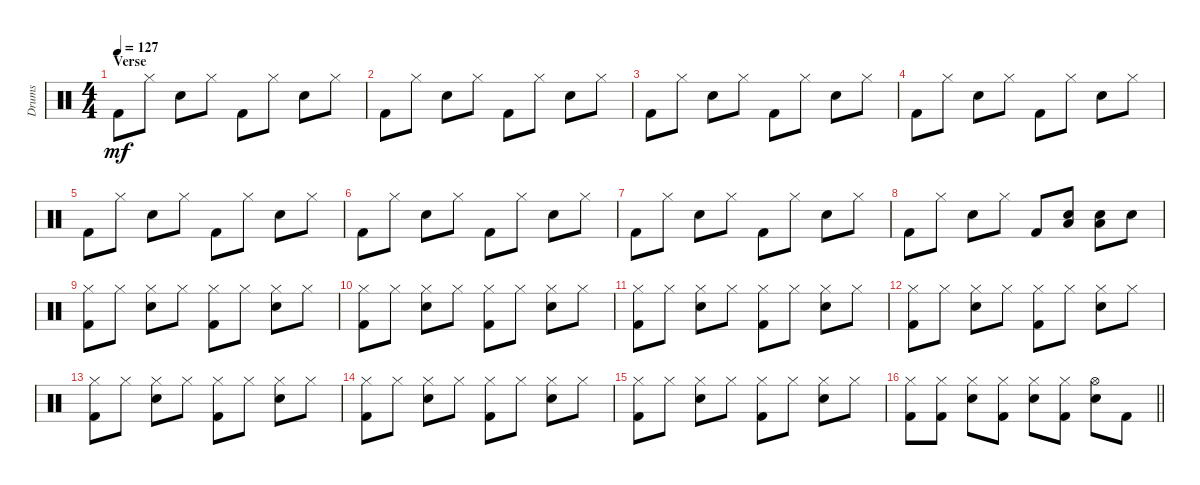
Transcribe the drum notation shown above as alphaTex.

\track ("Drums" "Drums") {instrument percussion}
\staff {score}
\articulation defaults
\ts (4 4)
\section ("" "Verse")
\tempo 127
\clef neutral
\ks c "Kick (hit) 2".8{dy mf} "Hi-Hat (closed)".8 "Electric Snare (hit)".8 "Hi-Hat (closed)".8 "Kick (hit) 2".8 "Hi-Hat (closed)".8 "Electric Snare (hit)".8 "Hi-Hat (closed)".8
|
"Kick (hit) 2".8 "Hi-Hat (closed)".8 "Electric Snare (hit)".8 "Hi-Hat (closed)".8 "Kick (hit) 2".8 "Hi-Hat (closed)".8 "Electric Snare (hit)".8 "Hi-Hat (closed)".8 |
"Kick (hit) 2".8 "Hi-Hat (closed)".8 "Electric Snare (hit)".8 "Hi-Hat (closed)".8 "Kick (hit) 2".8 "Hi-Hat (closed)".8 "Electric Snare (hit)".8 "Hi-Hat (closed)".8 |
"Kick (hit) 2".8 "Hi-Hat (closed)".8 "Electric Snare (hit)".8 "Hi-Hat (closed)".8 "Kick (hit) 2".8 "Hi-Hat (closed)".8 "Electric Snare (hit)".8 "Hi-Hat (closed)".8 |
"Kick (hit) 2".8 "Hi-Hat (closed)".8 "Electric Snare (hit)".8 "Hi-Hat (closed)".8 "Kick (hit) 2".8 "Hi-Hat (closed)".8 "Electric Snare (hit)".8 "Hi-Hat (closed)".8 |
"Kick (hit) 2".8 "Hi-Hat (closed)".8 "Electric Snare (hit)".8 "Hi-Hat (closed)".8 "Kick (hit) 2".8 "Hi-Hat (closed)".8 "Electric Snare (hit)".8 "Hi-Hat (closed)".8 |
"Kick (hit) 2".8 "Hi-Hat (closed)".8 "Electric Snare (hit)".8 "Hi-Hat (closed)".8 "Kick (hit) 2".8 "Hi-Hat (closed)".8 "Electric Snare (hit)".8 "Hi-Hat (closed)".8 |
"Kick (hit) 2".8 "Hi-Hat (closed)".8 "Electric Snare (hit)".8 "Hi-Hat (closed)".8 "Kick (hit) 2".8 ("Electric Snare (hit)" "Low Tom (hit)").8 ("Electric Snare (hit)" "Low Tom (hit)").8 "Electric Snare (hit)".8 |
("Hi-Hat (closed)" "Kick (hit) 2").8 "Hi-Hat (closed)".8 ("Hi-Hat (closed)" "Electric Snare (hit)").8 "Hi-Hat (closed)".8 ("Hi-Hat (closed)" "Kick (hit) 2").8 "Hi-Hat (closed)".8 ("Hi-Hat (closed)" "Electric Snare (hit)").8 "Hi-Hat (closed)".8 |
("Hi-Hat (closed)" "Kick (hit) 2").8 "Hi-Hat (closed)".8 ("Hi-Hat (closed)" "Electric Snare (hit)").8 "Hi-Hat (closed)".8 ("Hi-Hat (closed)" "Kick (hit) 2").8 "Hi-Hat (closed)".8 ("Hi-Hat (closed)" "Electric Snare (hit)").8 "Hi-Hat (closed)".8 |
("Hi-Hat (closed)" "Kick (hit) 2").8 "Hi-Hat (closed)".8 ("Hi-Hat (closed)" "Electric Snare (hit)").8 "Hi-Hat (closed)".8 ("Hi-Hat (closed)" "Kick (hit) 2").8 "Hi-Hat (closed)".8 ("Hi-Hat (closed)" "Electric Snare (hit)").8 "Hi-Hat (closed)".8 |
("Hi-Hat (closed)" "Kick (hit) 2").8 "Hi-Hat (closed)".8 ("Hi-Hat (closed)" "Electric Snare (hit)").8 "Hi-Hat (closed)".8 ("Hi-Hat (closed)" "Kick (hit) 2").8 "Hi-Hat (closed)".8 ("Hi-Hat (closed)" "Electric Snare (hit)").8 "Hi-Hat (closed)".8 |
("Hi-Hat (closed)" "Kick (hit) 2").8 "Hi-Hat (closed)".8 ("Hi-Hat (closed)" "Electric Snare (hit)").8 "Hi-Hat (closed)".8 ("Hi-Hat (closed)" "Kick (hit) 2").8 "Hi-Hat (closed)".8 ("Hi-Hat (closed)" "Electric Snare (hit)").8 "Hi-Hat (closed)".8 |
("Hi-Hat (closed)" "Kick (hit) 2").8 "Hi-Hat (closed)".8 ("Hi-Hat (closed)" "Electric Snare (hit)").8 "Hi-Hat (closed)".8 ("Hi-Hat (closed)" "Kick (hit) 2").8 "Hi-Hat (closed)".8 ("Hi-Hat (closed)" "Electric Snare (hit)").8 "Hi-Hat (closed)".8 |
("Hi-Hat (closed)" "Kick (hit) 2").8 "Hi-Hat (closed)".8 ("Hi-Hat (closed)" "Electric Snare (hit)").8 "Hi-Hat (closed)".8 ("Hi-Hat (closed)" "Kick (hit) 2").8 "Hi-Hat (closed)".8 ("Hi-Hat (closed)" "Electric Snare (hit)").8 "Hi-Hat (closed)".8 |
\barLineRight lightlight
("Hi-Hat (closed)" "Kick (hit) 2").8 ("Hi-Hat (closed)" "Kick (hit) 2").8 ("Hi-Hat (closed)" "Electric Snare (hit)").8 ("Hi-Hat (closed)" "Kick (hit) 2").8 ("Hi-Hat (closed)" "Electric Snare (hit)").8 ("Hi-Hat (closed)" "Kick (hit) 2").8 ("Hi-Hat (open)" "Electric Snare (hit)").8 "Kick (hit) 2".8
